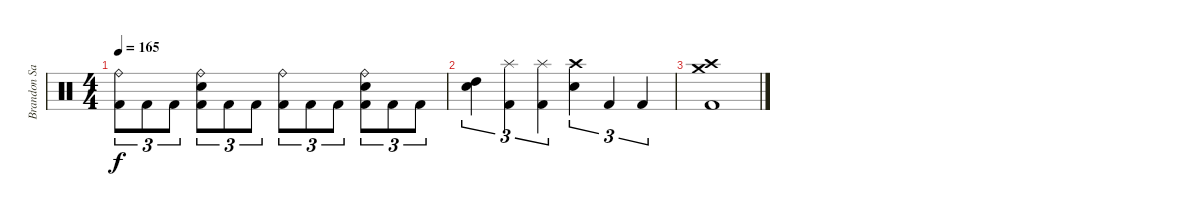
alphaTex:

\track ("Brandon Saller" "Brandon Sa") {instrument percussion}
\staff {score}
\articulation defaults
\ts (4 4)
\tempo 165
\clef neutral
\ks c
("Ride (bell)" "Kick (hit) 2").8{tu (3 2) dy f} "Kick (hit) 2".8{tu (3 2)} "Kick (hit) 2".8{tu (3 2)} ("Ride (bell)" "Electric Snare (hit)" "Kick (hit) 2").8{tu (3 2)} "Kick (hit) 2".8{tu (3 2)} "Kick (hit) 2".8{tu (3 2)} ("Ride (bell)" "Kick (hit) 2").8{tu (3 2)} "Kick (hit) 2".8{tu (3 2)} "Kick (hit) 2".8{tu (3 2)} ("Ride (bell)" "Electric Snare (hit)" "Kick (hit) 2").8{tu (3 2)} "Kick (hit) 2".8{tu (3 2)} "Kick (hit) 2".8{tu (3 2)} |
("High Tom (hit)" "Electric Snare (hit)").4{tu (3 2)} ("Splash (hit)" "Kick (hit) 2").4{tu (3 2)} ("Splash (hit)" "Kick (hit) 2").4{tu (3 2)} ("Crash high (hit)" "Electric Snare (hit)").4{tu (3 2)} "Kick (hit) 2".4{tu (3 2)} "Kick (hit) 2".4{tu (3 2)} |
("Crash high (hit)" "Crash medium (hit)" "Kick (hit) 2").1
